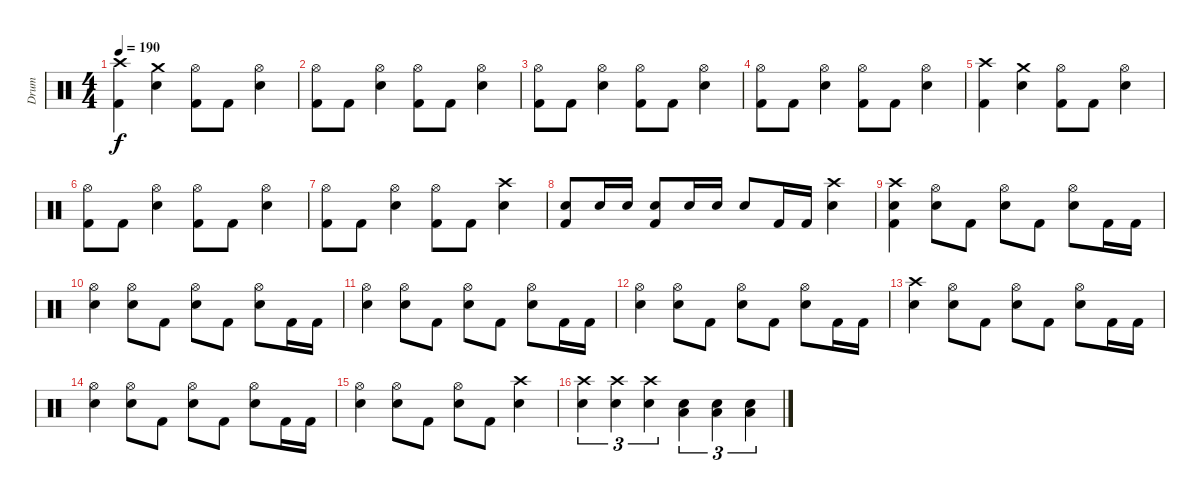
\track ("Drum" "Drum") {instrument percussion}
\staff {score}
\articulation defaults
\ts (4 4)
\tempo 190
\clef neutral
\ks c
("Crash high (hit)" "Kick (hit) 2").4{dy f} ("Crash medium (hit)" "Electric Snare (hit)").4 ("Hi-Hat (open)" "Kick (hit) 2").8 "Kick (hit) 2".8 ("Hi-Hat (open)" "Electric Snare (hit)").4 |
("Hi-Hat (open)" "Kick (hit) 2").8 "Kick (hit) 2".8 ("Hi-Hat (open)" "Electric Snare (hit)").4 ("Hi-Hat (open)" "Kick (hit) 2").8 "Kick (hit) 2".8 ("Hi-Hat (open)" "Electric Snare (hit)").4 |
("Hi-Hat (open)" "Kick (hit) 2").8 "Kick (hit) 2".8 ("Hi-Hat (open)" "Electric Snare (hit)").4 ("Hi-Hat (open)" "Kick (hit) 2").8 "Kick (hit) 2".8 ("Hi-Hat (open)" "Electric Snare (hit)").4 |
("Hi-Hat (open)" "Kick (hit) 2").8 "Kick (hit) 2".8 ("Hi-Hat (open)" "Electric Snare (hit)").4 ("Hi-Hat (open)" "Kick (hit) 2").8 "Kick (hit) 2".8 ("Hi-Hat (open)" "Electric Snare (hit)").4 |
("Crash high (hit)" "Kick (hit) 2").4 ("Crash medium (hit)" "Electric Snare (hit)").4 ("Hi-Hat (open)" "Kick (hit) 2").8 "Kick (hit) 2".8 ("Hi-Hat (open)" "Electric Snare (hit)").4 |
("Hi-Hat (open)" "Kick (hit) 2").8 "Kick (hit) 2".8 ("Hi-Hat (open)" "Electric Snare (hit)").4 ("Hi-Hat (open)" "Kick (hit) 2").8 "Kick (hit) 2".8 ("Hi-Hat (open)" "Electric Snare (hit)").4 |
("Hi-Hat (open)" "Kick (hit) 2").8 "Kick (hit) 2".8 ("Hi-Hat (open)" "Electric Snare (hit)").4 ("Hi-Hat (open)" "Kick (hit) 2").8 "Kick (hit) 2".8 ("Crash high (hit)" "Electric Snare (hit)").4 |
("Electric Snare (hit)" "Kick (hit) 2").8 "Electric Snare (hit)".16 "Electric Snare (hit)".16 ("Electric Snare (hit)" "Kick (hit) 2").8 "Electric Snare (hit)".16 "Electric Snare (hit)".16 "Electric Snare (hit)".8 "Kick (hit) 2".16 "Kick (hit) 2".16 ("Crash high (hit)" "Electric Snare (hit)").4 |
("Crash high (hit)" "Electric Snare (hit)" "Kick (hit) 2").4 ("Hi-Hat (open)" "Electric Snare (hit)").8 "Kick (hit) 2".8 ("Hi-Hat (open)" "Electric Snare (hit)").8 "Kick (hit) 2".8 ("Hi-Hat (open)" "Electric Snare (hit)").8 "Kick (hit) 2".16 "Kick (hit) 2".16 |
("Hi-Hat (open)" "Electric Snare (hit)").4 ("Hi-Hat (open)" "Electric Snare (hit)").8 "Kick (hit) 2".8 ("Hi-Hat (open)" "Electric Snare (hit)").8 "Kick (hit) 2".8 ("Hi-Hat (open)" "Electric Snare (hit)").8 "Kick (hit) 2".16 "Kick (hit) 2".16 |
("Hi-Hat (open)" "Electric Snare (hit)").4 ("Hi-Hat (open)" "Electric Snare (hit)").8 "Kick (hit) 2".8 ("Hi-Hat (open)" "Electric Snare (hit)").8 "Kick (hit) 2".8 ("Hi-Hat (open)" "Electric Snare (hit)").8 "Kick (hit) 2".16 "Kick (hit) 2".16 |
("Hi-Hat (open)" "Electric Snare (hit)").4 ("Hi-Hat (open)" "Electric Snare (hit)").8 "Kick (hit) 2".8 ("Hi-Hat (open)" "Electric Snare (hit)").8 "Kick (hit) 2".8 ("Hi-Hat (open)" "Electric Snare (hit)").8 "Kick (hit) 2".16 "Kick (hit) 2".16 |
("Crash high (hit)" "Electric Snare (hit)").4 ("Hi-Hat (open)" "Electric Snare (hit)").8 "Kick (hit) 2".8 ("Hi-Hat (open)" "Electric Snare (hit)").8 "Kick (hit) 2".8 ("Hi-Hat (open)" "Electric Snare (hit)").8 "Kick (hit) 2".16 "Kick (hit) 2".16 |
("Hi-Hat (open)" "Electric Snare (hit)").4 ("Hi-Hat (open)" "Electric Snare (hit)").8 "Kick (hit) 2".8 ("Hi-Hat (open)" "Electric Snare (hit)").8 "Kick (hit) 2".8 ("Hi-Hat (open)" "Electric Snare (hit)").8 "Kick (hit) 2".16 "Kick (hit) 2".16 |
("Hi-Hat (open)" "Electric Snare (hit)").4 ("Hi-Hat (open)" "Electric Snare (hit)").8 "Kick (hit) 2".8 ("Hi-Hat (open)" "Electric Snare (hit)").8 "Kick (hit) 2".8 ("Crash high (hit)" "Electric Snare (hit)").4 |
("Crash high (hit)" "Electric Snare (hit)").4{tu (3 2)} ("Crash high (hit)" "Electric Snare (hit)").4{tu (3 2)} ("Crash high (hit)" "Electric Snare (hit)").4{tu (3 2)} ("Electric Snare (hit)" "Low Floor Tom (hit)").4{tu (3 2)} ("Electric Snare (hit)" "Low Floor Tom (hit)").4{tu (3 2)} ("Electric Snare (hit)" "Low Floor Tom (hit)").4{tu (3 2)}
